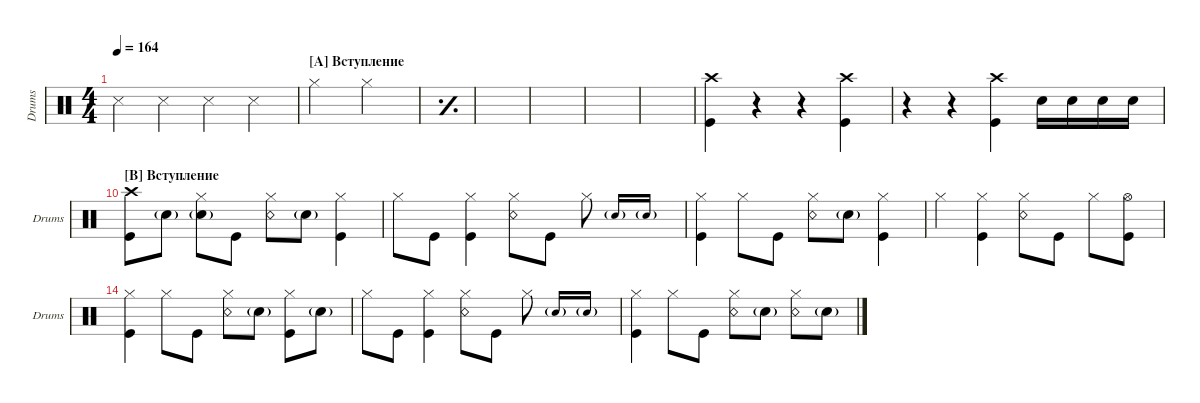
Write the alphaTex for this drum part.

\defaultSystemsLayout 4
\hideDynamics
\bracketExtendMode groupsimilarinstruments
\singleTrackTrackNamePolicy allsystems
\multiTrackTrackNamePolicy allsystems
\otherSystemsTrackNameOrientation horizontal
\defaultBarNumberDisplay FirstOfSystem
\track ("Drumkit" "Drums") {instrument percussion}
\staff {score}
\articulation defaults
\ts (4 4)
\tempo 164
\clef neutral
\ks c "Snare (side stick) 3".4{dy f} "Snare (side stick) 3".4 "Snare (side stick) 3".4 "Snare (side stick) 3".4
|
\section ("A" "Вступление")
"Hi-Hat (closed)".2 "Hi-Hat (closed)".2 |
\simile simple
|
|
|
|
|
\simile none
("Kick (hit)" "Crash high (hit)").4 r.4 r.4 ("Crash high (hit)" "Kick (hit)").4 |
r.4 r.4 ("Kick (hit)" "Crash high (hit)").4 "Snare (hit) 2".16 "Snare (hit) 2".16 "Snare (hit) 2".16 "Snare (hit) 2".16 |
\section ("B" "Вступление")
("Crash high (hit)" "Kick (hit)").8 "Snare (hit) 2"{g}.8 ("Hi-Hat (closed)" "Snare (hit) 2"{g}).8 "Kick (hit)".8 ("Hi-Hat (closed)" "Snare (rim shot)").8 "Snare (hit) 2"{g}.8 ("Hi-Hat (closed)" "Kick (hit)").4 |
"Hi-Hat (closed)".8 "Kick (hit)".8 ("Kick (hit)" "Hi-Hat (closed)").4 ("Snare (rim shot)" "Hi-Hat (closed)").8 "Kick (hit)".8 "Hi-Hat (closed)".8 "Snare (hit) 2"{g}.16{gr onbeat} "Snare (hit) 2"{g}.16{gr onbeat} |
("Kick (hit)" "Hi-Hat (closed)").4 "Hi-Hat (closed)".8 "Kick (hit)".8 ("Hi-Hat (closed)" "Snare (rim shot)").8 "Snare (hit) 2"{g}.8 ("Hi-Hat (closed)" "Kick (hit)").4 |
"Hi-Hat (closed)".4 ("Kick (hit)" "Hi-Hat (closed)").4 ("Snare (rim shot)" "Hi-Hat (closed)").8 "Kick (hit)".8 "Hi-Hat (closed)".8 ("Kick (hit)" "Hi-Hat (open)").8 |
("Kick (hit)" "Hi-Hat (closed)").4 "Hi-Hat (closed)".8 "Kick (hit)".8 ("Hi-Hat (closed)" "Snare (rim shot)").8 "Snare (hit) 2"{g}.8 ("Hi-Hat (closed)" "Kick (hit)").8 "Snare (hit) 2"{g}.8 |
"Hi-Hat (closed)".8 "Kick (hit)".8 ("Kick (hit)" "Hi-Hat (closed)").4 ("Snare (rim shot)" "Hi-Hat (closed)").8 "Kick (hit)".8 "Hi-Hat (closed)".8 "Snare (hit) 2"{g}.16{gr onbeat} "Snare (hit) 2"{g}.16{gr onbeat} |
("Hi-Hat (closed)" "Kick (hit)").4 "Hi-Hat (closed)".8 "Kick (hit)".8 ("Hi-Hat (closed)" "Snare (rim shot)").8 "Snare (hit) 2"{g}.8 ("Hi-Hat (closed)" "Snare (rim shot)").8 "Snare (hit) 2"{g}.8
